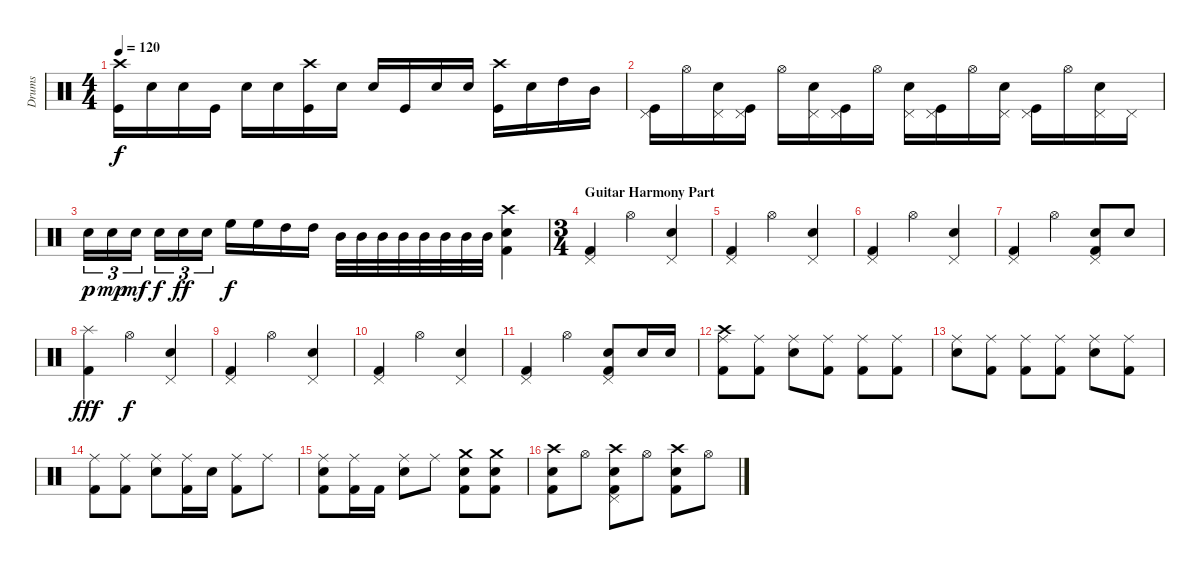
\track ("Drums" "Drums") {instrument percussion}
\staff {score}
\articulation defaults
\ts (4 4)
\tempo 120
\clef neutral
\ks c
("Crash high (hit)" "Kick (hit)").16{dy f} "Electric Snare (hit)".16 "Electric Snare (hit)".16 "Kick (hit)".16 "Electric Snare (hit)".16 "Electric Snare (hit)".16 ("Crash high (hit)" "Kick (hit)").16 "Electric Snare (hit)".16 "Electric Snare (hit)".16 "Kick (hit)".16 "Electric Snare (hit)".16 "Electric Snare (hit)".16 ("Crash high (hit)" "Kick (hit)").16 "Electric Snare (hit)".16 "High Tom (hit)".16 "Mid Tom (hit)".16 |
("Pedal Hi-Hat (hit)" "Kick (hit)").16 "Hi-Hat (open)".16 ("Pedal Hi-Hat (hit)" "Electric Snare (hit)").16 ("Pedal Hi-Hat (hit)" "Kick (hit)").16 "Hi-Hat (open)".16 ("Pedal Hi-Hat (hit)" "Electric Snare (hit)").16 ("Pedal Hi-Hat (hit)" "Kick (hit)").16 "Hi-Hat (open)".16 ("Pedal Hi-Hat (hit)" "Electric Snare (hit)").16 ("Pedal Hi-Hat (hit)" "Kick (hit)").16 "Hi-Hat (open)".16 ("Pedal Hi-Hat (hit)" "Electric Snare (hit)").16 ("Pedal Hi-Hat (hit)" "Kick (hit)").16 "Hi-Hat (open)".16 ("Pedal Hi-Hat (hit)" "Electric Snare (hit)").16 "Pedal Hi-Hat (hit)".16 |
"Electric Snare (hit)".16{tu (3 2) dy p} "Electric Snare (hit)".16{tu (3 2) dy mp} "Electric Snare (hit)".16{tu (3 2) dy mf} "Electric Snare (hit)".16{tu (3 2) dy f} "Electric Snare (hit)".16{tu (3 2) dy ff} "Electric Snare (hit)".16{tu (3 2)} "High Floor Tom (hit)".16{dy f} "High Floor Tom (hit)".16 "High Tom (hit)".16 "High Tom (hit)".16 "Mid Tom (hit)".32 "Mid Tom (hit)".32 "Mid Tom (hit)".32 "Mid Tom (hit)".32 "Mid Tom (hit)".32 "Mid Tom (hit)".32 "Mid Tom (hit)".32 "Mid Tom (hit)".32 ("Crash high (hit)" "Electric Snare (hit)" "Kick (hit) 2").4 |
\ts (3 4)
\section ("" "Guitar Harmony Part")
("Pedal Hi-Hat (hit)" "Kick (hit) 2").4 "Hi-Hat (open)".4 ("Pedal Hi-Hat (hit)" "Electric Snare (hit)").4 |
("Pedal Hi-Hat (hit)" "Kick (hit) 2").4 "Hi-Hat (open)".4 ("Pedal Hi-Hat (hit)" "Electric Snare (hit)").4 |
("Pedal Hi-Hat (hit)" "Kick (hit) 2").4 "Hi-Hat (open)".4 ("Pedal Hi-Hat (hit)" "Electric Snare (hit)").4 |
("Pedal Hi-Hat (hit)" "Kick (hit) 2").4 "Hi-Hat (open)".4 ("Pedal Hi-Hat (hit)" "Electric Snare (hit)" "Kick (hit) 2").8 "Electric Snare (hit)".8 |
("Splash (hit)" "Kick (hit) 2").4{dy fff} "Hi-Hat (open)".4{dy f} ("Pedal Hi-Hat (hit)" "Electric Snare (hit)").4 |
("Pedal Hi-Hat (hit)" "Kick (hit) 2").4 "Hi-Hat (open)".4 ("Pedal Hi-Hat (hit)" "Electric Snare (hit)").4 |
("Pedal Hi-Hat (hit)" "Kick (hit) 2").4 "Hi-Hat (open)".4 ("Pedal Hi-Hat (hit)" "Electric Snare (hit)").4 |
("Pedal Hi-Hat (hit)" "Kick (hit) 2").4 "Hi-Hat (open)".4 ("Pedal Hi-Hat (hit)" "Electric Snare (hit)" "Kick (hit) 2").8 "Electric Snare (hit)".16 "Electric Snare (hit)".16 |
("Crash high (hit)" "Ride (middle)" "Kick (hit) 2").8 ("Ride (middle)" "Kick (hit) 2").8 ("Ride (middle)" "Electric Snare (hit)").8 ("Ride (middle)" "Kick (hit) 2").8 ("Ride (middle)" "Kick (hit) 2").8 ("Ride (middle)" "Kick (hit) 2").8 |
("Ride (middle)" "Electric Snare (hit)").8 ("Ride (middle)" "Kick (hit) 2").8 ("Ride (middle)" "Kick (hit) 2").8 ("Ride (middle)" "Kick (hit) 2").8 ("Ride (middle)" "Electric Snare (hit)").8 ("Ride (middle)" "Kick (hit) 2").8 |
("Ride (middle)" "Kick (hit) 2").8 ("Ride (middle)" "Kick (hit) 2").8 ("Ride (middle)" "Electric Snare (hit)").8 ("Ride (middle)" "Kick (hit) 2").16 "Electric Snare (hit)".16 ("Ride (middle)" "Kick (hit) 2").8 "Ride (middle)".8 |
("Ride (middle)" "Electric Snare (hit)" "Kick (hit) 2").8 ("Ride (middle)" "Kick (hit) 2").16 "Kick (hit) 2".16 ("Ride (middle)" "Electric Snare (hit)").8 "Ride (middle)".8 ("Crash medium (hit)" "Electric Snare (hit)" "Kick (hit) 2").8 ("Crash medium (hit)" "Electric Snare (hit)" "Kick (hit) 2").8 |
("Crash high (hit)" "Electric Snare (hit)" "Kick (hit) 2").8 "Hi-Hat (open)".8 ("Crash high (hit)" "Pedal Hi-Hat (hit)" "Electric Snare (hit)" "Kick (hit) 2").8 "Hi-Hat (open)".8 ("Crash high (hit)" "Electric Snare (hit)" "Kick (hit) 2").8 "Hi-Hat (open)".8
